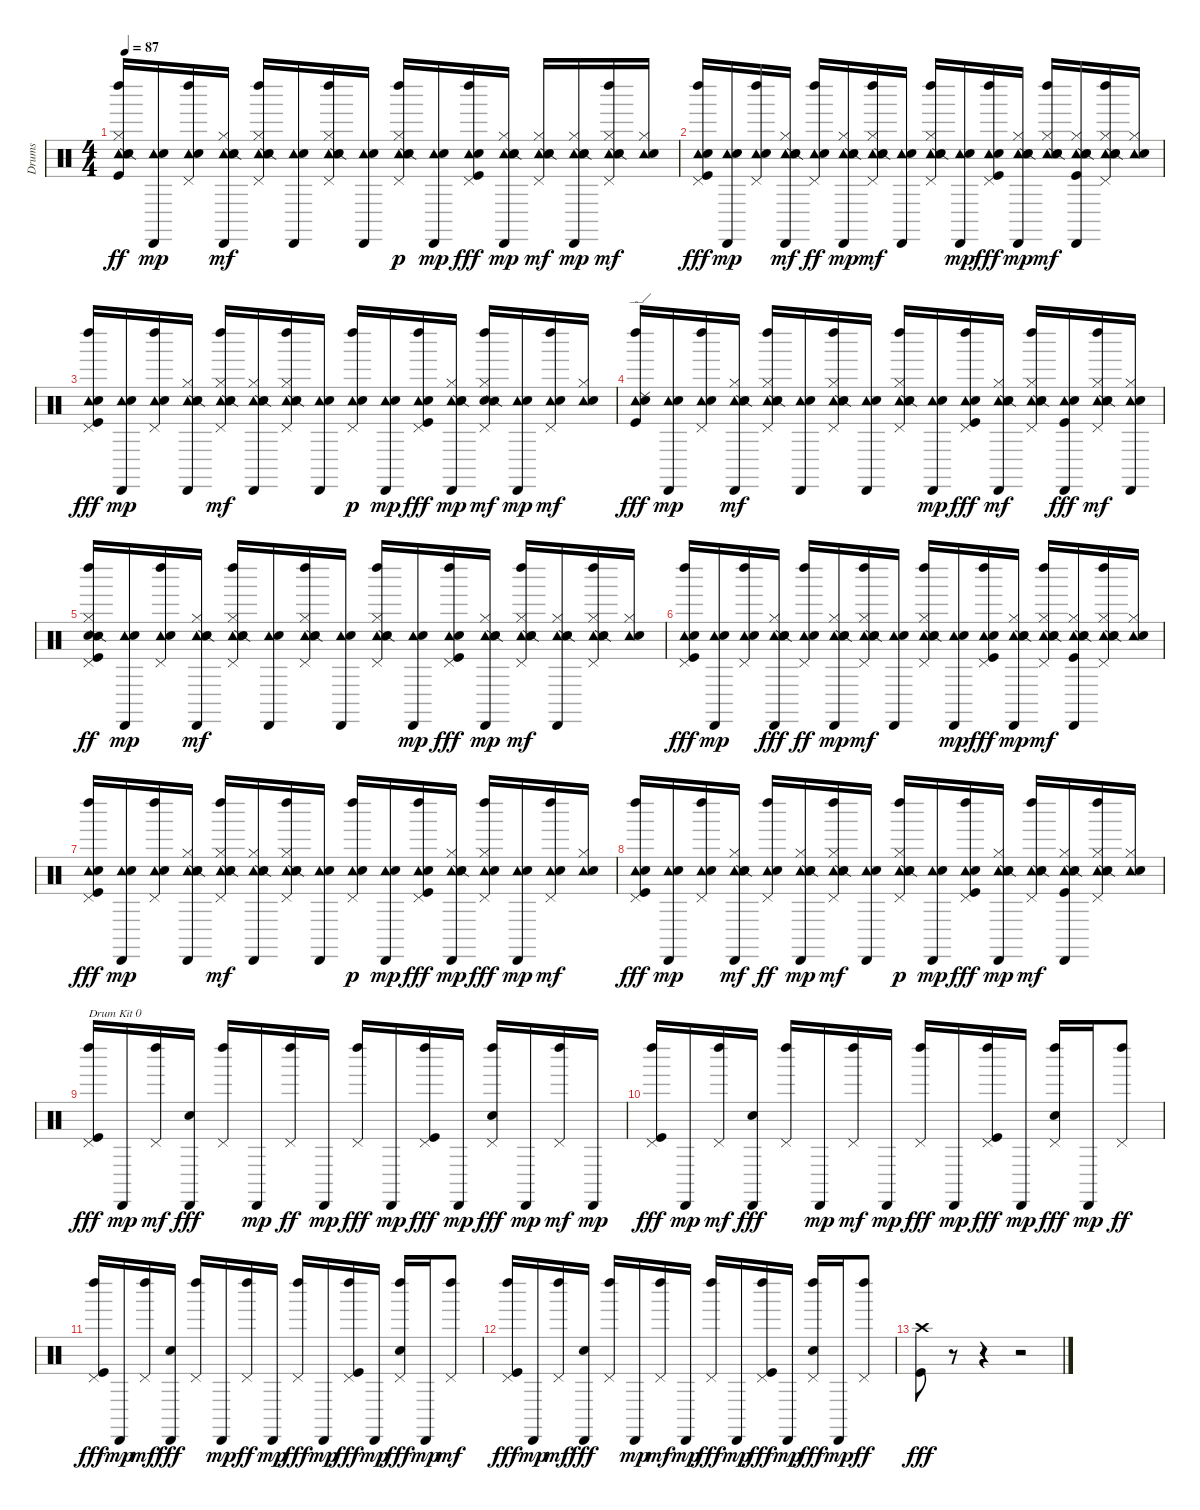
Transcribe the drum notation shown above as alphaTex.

\track ("Drums" "Drums") {instrument percussion}
\staff {score}
\articulation defaults
\ts (4 4)
\tempo 87
\clef neutral
\ks c
("Left Maraca (hit)" "Tambourine (hit)" "Kick (hit)" "Hi-Hat (closed)" "Snare (hit) 2" "Snare (side stick) 2").16{dy ff} ("Cabasa (hit)" "Tambourine (hit)" "Snare (hit) 2").16{dy mp} ("Left Maraca (hit)" "Tambourine (hit)" "Pedal Hi-Hat (hit)" "Snare (hit) 2").16 ("Cabasa (hit)" "Tambourine (hit)" "Hi-Hat (closed)" "Hand Clap (hit)" "Snare (side stick) 2").16{dy mf} ("Left Maraca (hit)" "Tambourine (hit)" "Pedal Hi-Hat (hit)" "Hi-Hat (closed)" "Snare (hit) 2" "Snare (side stick) 2").16 ("Cabasa (hit)" "Tambourine (hit)" "Snare (hit) 2").16 ("Left Maraca (hit)" "Tambourine (hit)" "Pedal Hi-Hat (hit)" "Hi-Hat (closed)" "Snare (hit) 2" "Snare (side stick) 2").16 ("Cabasa (hit)" "Tambourine (hit)" "Snare (hit) 2").16 ("Left Maraca (hit)" "Tambourine (hit)" "Pedal Hi-Hat (hit)" "Hi-Hat (closed)" "Snare (hit) 2" "Snare (side stick) 2").16{dy p} ("Cabasa (hit)" "Tambourine (hit)" "Snare (hit) 2").16{dy mp} ("Left Maraca (hit)" "Tambourine (hit)" "Pedal Hi-Hat (hit)" "Snare (hit) 2" "Kick (hit)").16{dy fff} ("Cabasa (hit)" "Tambourine (hit)" "Hi-Hat (closed)" "Snare (hit) 2" "Snare (side stick) 2").16{dy mp} ("Tambourine (hit)" "Pedal Hi-Hat (hit)" "Hi-Hat (closed)" "Hand Clap (hit)" "Snare (side stick) 2").16{dy mf} ("Cabasa (hit)" "Tambourine (hit)" "Hi-Hat (closed)" "Snare (hit) 2" "Snare (side stick) 2").16{dy mp} ("Left Maraca (hit)" "Tambourine (hit)" "Pedal Hi-Hat (hit)" "Hi-Hat (closed)" "Snare (hit) 2" "Snare (side stick) 2").16{dy mf} ("Tambourine (hit)" "Hi-Hat (closed)" "Snare (hit) 2").16 |
("Left Maraca (hit)" "Tambourine (hit)" "Pedal Hi-Hat (hit)" "Snare (hit) 2" "Kick (hit)").16{dy fff} ("Cabasa (hit)" "Tambourine (hit)" "Snare (hit) 2").16{dy mp} ("Left Maraca (hit)" "Tambourine (hit)" "Pedal Hi-Hat (hit)" "Snare (hit) 2").16 ("Cabasa (hit)" "Tambourine (hit)" "Hi-Hat (closed)" "Hand Clap (hit)" "Snare (side stick) 2").16{dy mf} ("Left Maraca (hit)" "Tambourine (hit)" "Pedal Hi-Hat (hit)" "Snare (hit) 2").16{dy ff} ("Cabasa (hit)" "Tambourine (hit)" "Hi-Hat (closed)" "Snare (hit) 2" "Snare (side stick) 2").16{dy mp} ("Left Maraca (hit)" "Tambourine (hit)" "Pedal Hi-Hat (hit)" "Hi-Hat (closed)" "Snare (hit) 2" "Snare (side stick) 2").16{dy mf} ("Cabasa (hit)" "Tambourine (hit)" "Snare (hit) 2").16 ("Left Maraca (hit)" "Tambourine (hit)" "Pedal Hi-Hat (hit)" "Hi-Hat (closed)" "Snare (hit) 2" "Snare (side stick) 2").16 ("Cabasa (hit)" "Tambourine (hit)" "Snare (hit) 2").16{dy mp} ("Left Maraca (hit)" "Tambourine (hit)" "Pedal Hi-Hat (hit)" "Snare (hit) 2" "Kick (hit)").16{dy fff} ("Cabasa (hit)" "Tambourine (hit)" "Hi-Hat (closed)" "Snare (hit) 2" "Snare (side stick) 2").16{dy mp} ("Left Maraca (hit)" "Tambourine (hit)" "Hi-Hat (closed)" "Hand Clap (hit)" "Snare (side stick) 2").16{dy mf} ("Cabasa (hit)" "Tambourine (hit)" "Kick (hit)" "Hi-Hat (closed)" "Snare (hit) 2" "Snare (side stick) 2").16 ("Left Maraca (hit)" "Tambourine (hit)" "Pedal Hi-Hat (hit)" "Hi-Hat (closed)" "Snare (hit) 2" "Snare (side stick) 2").16 ("Tambourine (hit)" "Hi-Hat (closed)" "Snare (hit) 2").16 |
("Left Maraca (hit)" "Tambourine (hit)" "Pedal Hi-Hat (hit)" "Snare (hit) 2" "Kick (hit)").16{dy fff} ("Cabasa (hit)" "Tambourine (hit)" "Snare (hit) 2").16{dy mp} ("Left Maraca (hit)" "Tambourine (hit)" "Pedal Hi-Hat (hit)" "Snare (hit) 2").16 ("Cabasa (hit)" "Tambourine (hit)" "Hi-Hat (closed)" "Hand Clap (hit)" "Snare (side stick) 2").16 ("Left Maraca (hit)" "Tambourine (hit)" "Pedal Hi-Hat (hit)" "Hi-Hat (closed)" "Snare (hit) 2" "Snare (side stick) 2").16{dy mf} ("Cabasa (hit)" "Tambourine (hit)" "Hi-Hat (closed)" "Snare (hit) 2" "Snare (side stick) 2").16 ("Left Maraca (hit)" "Tambourine (hit)" "Pedal Hi-Hat (hit)" "Hi-Hat (closed)" "Snare (hit) 2" "Snare (side stick) 2").16 ("Cabasa (hit)" "Tambourine (hit)" "Snare (hit) 2").16 ("Left Maraca (hit)" "Tambourine (hit)" "Pedal Hi-Hat (hit)" "Snare (hit) 2").16{dy p} ("Cabasa (hit)" "Tambourine (hit)" "Snare (hit) 2").16{dy mp} ("Left Maraca (hit)" "Tambourine (hit)" "Pedal Hi-Hat (hit)" "Snare (hit) 2" "Kick (hit)").16{dy fff} ("Cabasa (hit)" "Tambourine (hit)" "Hi-Hat (closed)" "Snare (hit) 2" "Snare (side stick) 2").16{dy mp} ("Left Maraca (hit)" "Pedal Hi-Hat (hit)" "Hi-Hat (closed)" "Hand Clap (hit)" "Snare (side stick) 2").16{dy mf} ("Cabasa (hit)" "Tambourine (hit)" "Snare (hit) 2").16{dy mp} ("Left Maraca (hit)" "Tambourine (hit)" "Pedal Hi-Hat (hit)" "Snare (hit) 2").16{dy mf} ("Tambourine (hit)" "Hi-Hat (closed)" "Snare (hit) 2").16 |
("Left Maraca (hit)" "Tambourine (hit)" "Ride (edge) 2" "Snare (hit) 2" "Kick (hit)").16{dy fff} ("Cabasa (hit)" "Tambourine (hit)" "Snare (hit) 2").16{dy mp} ("Left Maraca (hit)" "Tambourine (hit)" "Pedal Hi-Hat (hit)" "Snare (hit) 2").16 ("Cabasa (hit)" "Tambourine (hit)" "Hi-Hat (closed)" "Hand Clap (hit)" "Snare (side stick) 2").16{dy mf} ("Left Maraca (hit)" "Tambourine (hit)" "Pedal Hi-Hat (hit)" "Hi-Hat (closed)" "Snare (hit) 2" "Snare (side stick) 2").16 ("Cabasa (hit)" "Tambourine (hit)" "Snare (hit) 2").16 ("Left Maraca (hit)" "Tambourine (hit)" "Pedal Hi-Hat (hit)" "Hi-Hat (closed)" "Snare (hit) 2" "Snare (side stick) 2").16 ("Cabasa (hit)" "Tambourine (hit)" "Snare (hit) 2").16 ("Left Maraca (hit)" "Tambourine (hit)" "Pedal Hi-Hat (hit)" "Hi-Hat (closed)" "Snare (hit) 2" "Snare (side stick) 2").16 ("Cabasa (hit)" "Tambourine (hit)" "Snare (hit) 2").16{dy mp} ("Left Maraca (hit)" "Tambourine (hit)" "Pedal Hi-Hat (hit)" "Snare (hit) 2" "Kick (hit)").16{dy fff} ("Cabasa (hit)" "Tambourine (hit)" "Hi-Hat (closed)" "Snare (hit) 2" "Snare (side stick) 2").16{dy mf} ("Left Maraca (hit)" "Tambourine (hit)" "Pedal Hi-Hat (hit)" "Hi-Hat (closed)" "Snare (hit) 2" "Snare (side stick) 2").16 ("Cabasa (hit)" "Tambourine (hit)" "Snare (hit) 2" "Kick (hit)").16{dy fff} ("Left Maraca (hit)" "Tambourine (hit)" "Pedal Hi-Hat (hit)" "Hi-Hat (closed)" "Snare (hit) 2" "Snare (side stick) 2").16{dy mf} ("Cabasa (hit)" "Tambourine (hit)" "Hi-Hat (closed)" "Snare (hit) 2").16 |
("Left Maraca (hit)" "Pedal Hi-Hat (hit)" "Kick (hit)" "Hi-Hat (closed)" "Snare (hit) 2" "Snare (side stick) 2").16{dy ff} ("Cabasa (hit)" "Tambourine (hit)" "Snare (hit) 2").16{dy mp} ("Left Maraca (hit)" "Tambourine (hit)" "Pedal Hi-Hat (hit)" "Snare (hit) 2").16 ("Cabasa (hit)" "Tambourine (hit)" "Hi-Hat (closed)" "Hand Clap (hit)" "Snare (side stick) 2").16{dy mf} ("Left Maraca (hit)" "Tambourine (hit)" "Pedal Hi-Hat (hit)" "Hi-Hat (closed)" "Snare (hit) 2" "Snare (side stick) 2").16 ("Cabasa (hit)" "Tambourine (hit)" "Snare (hit) 2").16 ("Left Maraca (hit)" "Tambourine (hit)" "Pedal Hi-Hat (hit)" "Hi-Hat (closed)" "Snare (hit) 2" "Snare (side stick) 2").16 ("Cabasa (hit)" "Tambourine (hit)" "Snare (hit) 2").16 ("Left Maraca (hit)" "Tambourine (hit)" "Pedal Hi-Hat (hit)" "Hi-Hat (closed)" "Snare (hit) 2" "Snare (side stick) 2").16 ("Cabasa (hit)" "Tambourine (hit)" "Snare (hit) 2").16{dy mp} ("Left Maraca (hit)" "Tambourine (hit)" "Pedal Hi-Hat (hit)" "Snare (hit) 2" "Kick (hit)").16{dy fff} ("Cabasa (hit)" "Tambourine (hit)" "Hi-Hat (closed)" "Snare (hit) 2" "Snare (side stick) 2").16{dy mp} ("Left Maraca (hit)" "Tambourine (hit)" "Pedal Hi-Hat (hit)" "Hi-Hat (closed)" "Snare (hit) 2" "Snare (side stick) 2").16{dy mf} ("Cabasa (hit)" "Tambourine (hit)" "Hi-Hat (closed)" "Snare (hit) 2" "Snare (side stick) 2").16 ("Left Maraca (hit)" "Tambourine (hit)" "Pedal Hi-Hat (hit)" "Hi-Hat (closed)" "Snare (hit) 2" "Snare (side stick) 2").16 ("Tambourine (hit)" "Hi-Hat (closed)" "Snare (hit) 2").16 |
("Left Maraca (hit)" "Tambourine (hit)" "Pedal Hi-Hat (hit)" "Snare (hit) 2" "Kick (hit)").16{dy fff} ("Cabasa (hit)" "Tambourine (hit)" "Snare (hit) 2").16{dy mp} ("Left Maraca (hit)" "Tambourine (hit)" "Pedal Hi-Hat (hit)" "Snare (hit) 2").16 ("Cabasa (hit)" "Tambourine (hit)" "Hi-Hat (closed)" "Hand Clap (hit)" "Snare (side stick) 2").16{dy fff} ("Left Maraca (hit)" "Tambourine (hit)" "Pedal Hi-Hat (hit)" "Snare (hit) 2").16{dy ff} ("Cabasa (hit)" "Tambourine (hit)" "Hi-Hat (closed)" "Snare (hit) 2" "Snare (side stick) 2").16{dy mp} ("Left Maraca (hit)" "Tambourine (hit)" "Pedal Hi-Hat (hit)" "Hi-Hat (closed)" "Snare (hit) 2" "Snare (side stick) 2").16{dy mf} ("Cabasa (hit)" "Tambourine (hit)" "Snare (hit) 2").16 ("Left Maraca (hit)" "Tambourine (hit)" "Pedal Hi-Hat (hit)" "Hi-Hat (closed)" "Snare (hit) 2" "Snare (side stick) 2").16 ("Cabasa (hit)" "Tambourine (hit)" "Snare (hit) 2").16{dy mp} ("Left Maraca (hit)" "Tambourine (hit)" "Pedal Hi-Hat (hit)" "Snare (hit) 2" "Kick (hit)").16{dy fff} ("Cabasa (hit)" "Tambourine (hit)" "Hi-Hat (closed)" "Snare (hit) 2" "Snare (side stick) 2").16{dy mp} ("Left Maraca (hit)" "Tambourine (hit)" "Pedal Hi-Hat (hit)" "Hi-Hat (closed)" "Hand Clap (hit)" "Snare (side stick) 2").16{dy mf} ("Cabasa (hit)" "Tambourine (hit)" "Kick (hit)" "Hi-Hat (closed)" "Snare (hit) 2" "Snare (side stick) 2").16 ("Left Maraca (hit)" "Tambourine (hit)" "Pedal Hi-Hat (hit)" "Hi-Hat (closed)" "Snare (hit) 2" "Snare (side stick) 2").16 ("Tambourine (hit)" "Hi-Hat (closed)" "Snare (hit) 2").16 |
("Left Maraca (hit)" "Tambourine (hit)" "Pedal Hi-Hat (hit)" "Snare (hit) 2" "Kick (hit)").16{dy fff} ("Cabasa (hit)" "Tambourine (hit)" "Snare (hit) 2").16{dy mp} ("Left Maraca (hit)" "Tambourine (hit)" "Pedal Hi-Hat (hit)" "Snare (hit) 2").16 ("Cabasa (hit)" "Tambourine (hit)" "Hi-Hat (closed)" "Hand Clap (hit)" "Snare (side stick) 2").16 ("Left Maraca (hit)" "Tambourine (hit)" "Pedal Hi-Hat (hit)" "Hi-Hat (closed)" "Snare (hit) 2" "Snare (side stick) 2").16{dy mf} ("Cabasa (hit)" "Tambourine (hit)" "Hi-Hat (closed)" "Snare (hit) 2" "Snare (side stick) 2").16 ("Left Maraca (hit)" "Tambourine (hit)" "Pedal Hi-Hat (hit)" "Hi-Hat (closed)" "Snare (hit) 2" "Snare (side stick) 2").16 ("Cabasa (hit)" "Tambourine (hit)" "Snare (hit) 2").16 ("Left Maraca (hit)" "Tambourine (hit)" "Pedal Hi-Hat (hit)" "Snare (hit) 2").16{dy p} ("Cabasa (hit)" "Tambourine (hit)" "Snare (hit) 2").16{dy mp} ("Left Maraca (hit)" "Tambourine (hit)" "Pedal Hi-Hat (hit)" "Snare (hit) 2" "Kick (hit)").16{dy fff} ("Cabasa (hit)" "Tambourine (hit)" "Hi-Hat (closed)" "Snare (hit) 2" "Snare (side stick) 2").16{dy mp} ("Left Maraca (hit)" "Tambourine (hit)" "Pedal Hi-Hat (hit)" "Hi-Hat (closed)" "Hand Clap (hit)").16{dy fff} ("Cabasa (hit)" "Tambourine (hit)" "Snare (hit) 2").16{dy mp} ("Left Maraca (hit)" "Tambourine (hit)" "Pedal Hi-Hat (hit)" "Snare (hit) 2").16{dy mf} ("Tambourine (hit)" "Hi-Hat (closed)" "Snare (hit) 2").16 |
("Left Maraca (hit)" "Tambourine (hit)" "Pedal Hi-Hat (hit)" "Snare (hit) 2" "Kick (hit)").16{dy fff} ("Cabasa (hit)" "Tambourine (hit)" "Snare (hit) 2").16{dy mp} ("Left Maraca (hit)" "Tambourine (hit)" "Pedal Hi-Hat (hit)" "Snare (hit) 2").16 ("Cabasa (hit)" "Tambourine (hit)" "Hi-Hat (closed)" "Hand Clap (hit)" "Snare (side stick) 2").16{dy mf} ("Left Maraca (hit)" "Tambourine (hit)" "Pedal Hi-Hat (hit)" "Snare (hit) 2").16{dy ff} ("Cabasa (hit)" "Tambourine (hit)" "Hi-Hat (closed)" "Snare (hit) 2" "Snare (side stick) 2").16{dy mp} ("Left Maraca (hit)" "Tambourine (hit)" "Pedal Hi-Hat (hit)" "Hi-Hat (closed)" "Snare (hit) 2" "Snare (side stick) 2").16{dy mf} ("Cabasa (hit)" "Tambourine (hit)" "Snare (hit) 2").16 ("Left Maraca (hit)" "Tambourine (hit)" "Pedal Hi-Hat (hit)" "Hi-Hat (closed)" "Snare (hit) 2" "Snare (side stick) 2").16{dy p} ("Cabasa (hit)" "Tambourine (hit)" "Snare (hit) 2").16{dy mp} ("Left Maraca (hit)" "Tambourine (hit)" "Pedal Hi-Hat (hit)" "Snare (hit) 2" "Kick (hit)").16{dy fff} ("Cabasa (hit)" "Tambourine (hit)" "Hi-Hat (closed)" "Snare (hit) 2" "Snare (side stick) 2").16{dy mp} ("Left Maraca (hit)" "Tambourine (hit)" "Pedal Hi-Hat (hit)" "Hand Clap (hit)" "Snare (side stick) 2").16{dy mf} ("Cabasa (hit)" "Tambourine (hit)" "Kick (hit)" "Hi-Hat (closed)" "Snare (hit) 2" "Snare (side stick) 2").16 ("Left Maraca (hit)" "Tambourine (hit)" "Pedal Hi-Hat (hit)" "Hi-Hat (closed)" "Snare (hit) 2" "Snare (side stick) 2").16 ("Tambourine (hit)" "Hi-Hat (closed)" "Snare (hit) 2").16 |
("Left Maraca (hit)" "Pedal Hi-Hat (hit)" "Kick (hit)").16{txt "Drum Kit 0" dy fff} "Cabasa (hit)".16{dy mp} ("Left Maraca (hit)" "Pedal Hi-Hat (hit)").16{dy mf} ("Cabasa (hit)" "Electric Snare (hit)").16{dy fff} ("Left Maraca (hit)" "Pedal Hi-Hat (hit)").16 "Cabasa (hit)".16{dy mp} ("Left Maraca (hit)" "Pedal Hi-Hat (hit)").16{dy ff} "Cabasa (hit)".16{dy mp} ("Left Maraca (hit)" "Pedal Hi-Hat (hit)").16{dy fff} "Cabasa (hit)".16{dy mp} ("Left Maraca (hit)" "Pedal Hi-Hat (hit)" "Kick (hit)").16{dy fff} "Cabasa (hit)".16{dy mp} ("Left Maraca (hit)" "Pedal Hi-Hat (hit)" "Electric Snare (hit)").16{dy fff} "Cabasa (hit)".16{dy mp} ("Left Maraca (hit)" "Pedal Hi-Hat (hit)").16{dy mf} "Cabasa (hit)".16{dy mp} |
("Left Maraca (hit)" "Pedal Hi-Hat (hit)" "Kick (hit)").16{dy fff} "Cabasa (hit)".16{dy mp} ("Left Maraca (hit)" "Pedal Hi-Hat (hit)").16{dy mf} ("Cabasa (hit)" "Electric Snare (hit)").16{dy fff} ("Left Maraca (hit)" "Pedal Hi-Hat (hit)").16 "Cabasa (hit)".16{dy mp} ("Left Maraca (hit)" "Pedal Hi-Hat (hit)").16{dy mf} "Cabasa (hit)".16{dy mp} ("Left Maraca (hit)" "Pedal Hi-Hat (hit)").16{dy fff} "Cabasa (hit)".16{dy mp} ("Left Maraca (hit)" "Pedal Hi-Hat (hit)" "Kick (hit)").16{dy fff} "Cabasa (hit)".16{dy mp} ("Left Maraca (hit)" "Pedal Hi-Hat (hit)" "Electric Snare (hit)").16{dy fff} "Cabasa (hit)".16{dy mp} ("Left Maraca (hit)" "Pedal Hi-Hat (hit)").8{dy ff} |
("Left Maraca (hit)" "Pedal Hi-Hat (hit)" "Kick (hit)").16{dy fff} "Cabasa (hit)".16{dy mp} ("Left Maraca (hit)" "Pedal Hi-Hat (hit)").16{dy mf} ("Cabasa (hit)" "Electric Snare (hit)").16{dy fff} ("Left Maraca (hit)" "Pedal Hi-Hat (hit)").16 "Cabasa (hit)".16{dy mp} ("Left Maraca (hit)" "Pedal Hi-Hat (hit)").16{dy ff} "Cabasa (hit)".16{dy mp} ("Left Maraca (hit)" "Pedal Hi-Hat (hit)").16{dy fff} "Cabasa (hit)".16{dy mp} ("Left Maraca (hit)" "Pedal Hi-Hat (hit)" "Kick (hit)").16{dy fff} "Cabasa (hit)".16{dy mp} ("Left Maraca (hit)" "Pedal Hi-Hat (hit)" "Electric Snare (hit)").16{dy fff} "Cabasa (hit)".16{dy mp} ("Left Maraca (hit)" "Pedal Hi-Hat (hit)").8{dy mf} |
("Left Maraca (hit)" "Pedal Hi-Hat (hit)" "Kick (hit)").16{dy fff} "Cabasa (hit)".16{dy mp} ("Left Maraca (hit)" "Pedal Hi-Hat (hit)").16{dy mf} ("Cabasa (hit)" "Electric Snare (hit)").16{dy fff} ("Left Maraca (hit)" "Pedal Hi-Hat (hit)").16 "Cabasa (hit)".16{dy mp} ("Left Maraca (hit)" "Pedal Hi-Hat (hit)").16{dy mf} "Cabasa (hit)".16{dy mp} ("Left Maraca (hit)" "Pedal Hi-Hat (hit)").16{dy fff} "Cabasa (hit)".16{dy mp} ("Left Maraca (hit)" "Pedal Hi-Hat (hit)" "Kick (hit)").16{dy fff} "Cabasa (hit)".16{dy mp} ("Left Maraca (hit)" "Pedal Hi-Hat (hit)" "Electric Snare (hit)").16{dy fff} "Cabasa (hit)".16{dy mp} ("Left Maraca (hit)" "Pedal Hi-Hat (hit)").8{dy ff} |
("Crash high (hit)" "Kick (hit)").8{dy fff} r.8 r.4 r.2
